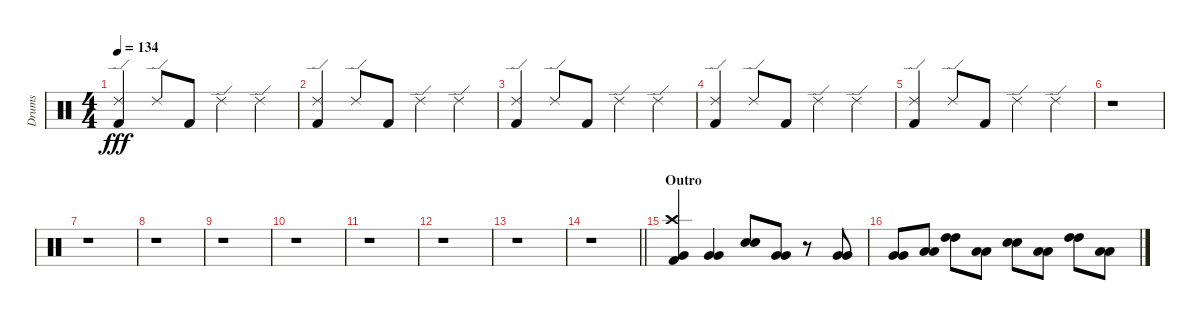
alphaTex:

\track ("Drums" "Drums") {instrument percussion}
\staff {score}
\articulation defaults
\ts (4 4)
\tempo 134
\clef neutral
\ks c
("Ride (edge) 2" "Kick (hit) 2").4{dy fff} "Ride (edge) 2".8 "Kick (hit) 2".8 "Ride (edge) 2".4 "Ride (edge) 2".4 |
("Ride (edge) 2" "Kick (hit) 2").4 "Ride (edge) 2".8 "Kick (hit) 2".8 "Ride (edge) 2".4 "Ride (edge) 2".4 |
("Ride (edge) 2" "Kick (hit) 2").4 "Ride (edge) 2".8 "Kick (hit) 2".8 "Ride (edge) 2".4 "Ride (edge) 2".4 |
("Ride (edge) 2" "Kick (hit) 2").4 "Ride (edge) 2".8 "Kick (hit) 2".8 "Ride (edge) 2".4 "Ride (edge) 2".4 |
("Ride (edge) 2" "Kick (hit) 2").4 "Ride (edge) 2".8 "Kick (hit) 2".8 "Ride (edge) 2".4 "Ride (edge) 2".4 |
r.1 |
r.1 |
r.1 |
r.1 |
r.1 |
r.1 |
r.1 |
r.1 |
\barLineRight lightlight
r.1 |
\section ("" "Outro")
("Crash high (hit)" "Very Low Tom (hit)" "Kick (hit) 2").4 ("Very Low Tom (hit)" "Very Low Tom (hit)").4 ("Electric Snare (hit)" "Electric Snare (hit)").8 ("Very Low Tom (hit)" "Very Low Tom (hit)").8 r.8 ("Very Low Tom (hit)" "Very Low Tom (hit)").8 |
("Very Low Tom (hit)" "Very Low Tom (hit)").8 ("Low Tom (hit)" "Low Tom (hit)").8 ("High Tom (hit)" "High Tom (hit)").8 ("Low Tom (hit)" "Low Tom (hit)").8 ("Electric Snare (hit)" "Electric Snare (hit)").8 ("Low Tom (hit)" "Low Tom (hit)").8 ("High Tom (hit)" "High Tom (hit)").8 ("Low Tom (hit)" "Low Tom (hit)").8
